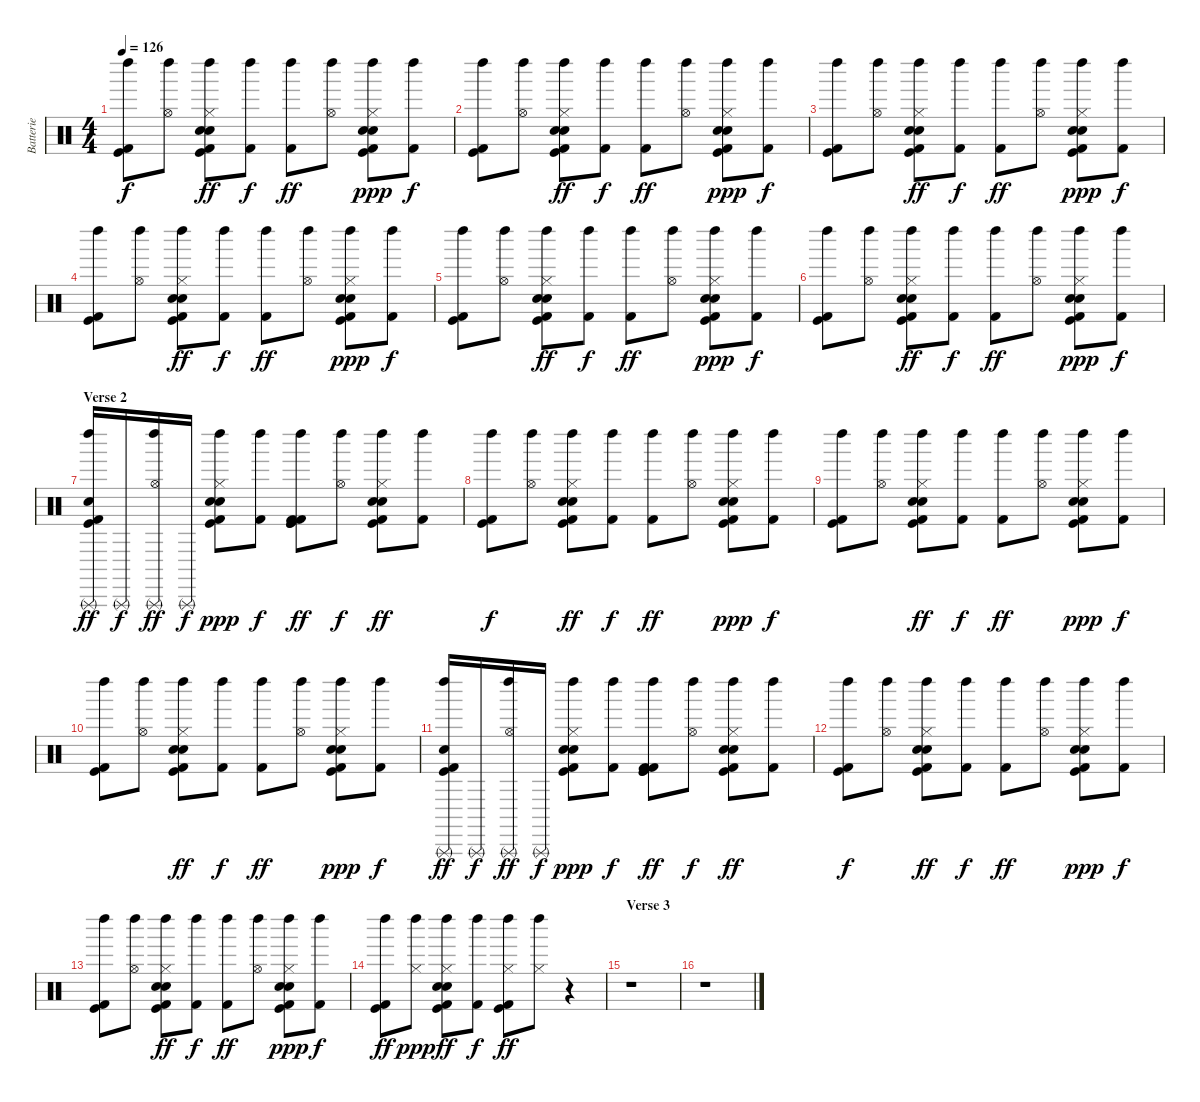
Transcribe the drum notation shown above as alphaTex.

\track ("Batterie" "Batterie") {instrument percussion}
\staff {score}
\articulation defaults
\ts (4 4)
\tempo 126
\clef neutral
\ks c
("Left Maraca (hit)" "Kick (hit)" "Kick (hit) 2").8{dy f} ("Left Maraca (hit)" "Hi-Hat (open)").8 ("Left Maraca (hit)" "Hi-Hat (closed)" "Electric Snare (hit)" "Hand Clap (hit)" "Kick (hit)" "Kick (hit) 2").8{dy ff} ("Left Maraca (hit)" "Kick (hit) 2").8{dy f} ("Left Maraca (hit)" "Kick (hit) 2").8{dy ff} ("Left Maraca (hit)" "Hi-Hat (open)").8 ("Left Maraca (hit)" "Hi-Hat (closed)" "Electric Snare (hit)" "Hand Clap (hit)" "Kick (hit)" "Kick (hit) 2").8{dy ppp} ("Left Maraca (hit)" "Kick (hit) 2").8{dy f} |
("Left Maraca (hit)" "Kick (hit)" "Kick (hit) 2").8 ("Left Maraca (hit)" "Hi-Hat (open)").8 ("Left Maraca (hit)" "Hi-Hat (closed)" "Electric Snare (hit)" "Hand Clap (hit)" "Kick (hit)" "Kick (hit) 2").8{dy ff} ("Left Maraca (hit)" "Kick (hit) 2").8{dy f} ("Left Maraca (hit)" "Kick (hit) 2").8{dy ff} ("Left Maraca (hit)" "Hi-Hat (open)").8 ("Left Maraca (hit)" "Hi-Hat (closed)" "Electric Snare (hit)" "Hand Clap (hit)" "Kick (hit)" "Kick (hit) 2").8{dy ppp} ("Left Maraca (hit)" "Kick (hit) 2").8{dy f} |
("Left Maraca (hit)" "Kick (hit)" "Kick (hit) 2").8 ("Left Maraca (hit)" "Hi-Hat (open)").8 ("Left Maraca (hit)" "Hi-Hat (closed)" "Electric Snare (hit)" "Hand Clap (hit)" "Kick (hit)" "Kick (hit) 2").8{dy ff} ("Left Maraca (hit)" "Kick (hit) 2").8{dy f} ("Left Maraca (hit)" "Kick (hit) 2").8{dy ff} ("Left Maraca (hit)" "Hi-Hat (open)").8 ("Left Maraca (hit)" "Hi-Hat (closed)" "Electric Snare (hit)" "Hand Clap (hit)" "Kick (hit)" "Kick (hit) 2").8{dy ppp} ("Left Maraca (hit)" "Kick (hit) 2").8{dy f} |
("Left Maraca (hit)" "Kick (hit)" "Kick (hit) 2").8 ("Left Maraca (hit)" "Hi-Hat (open)").8 ("Left Maraca (hit)" "Hi-Hat (closed)" "Electric Snare (hit)" "Hand Clap (hit)" "Kick (hit)" "Kick (hit) 2").8{dy ff} ("Left Maraca (hit)" "Kick (hit) 2").8{dy f} ("Left Maraca (hit)" "Kick (hit) 2").8{dy ff} ("Left Maraca (hit)" "Hi-Hat (open)").8 ("Left Maraca (hit)" "Hi-Hat (closed)" "Electric Snare (hit)" "Hand Clap (hit)" "Kick (hit)" "Kick (hit) 2").8{dy ppp} ("Left Maraca (hit)" "Kick (hit) 2").8{dy f} |
("Left Maraca (hit)" "Kick (hit)" "Kick (hit) 2").8 ("Left Maraca (hit)" "Hi-Hat (open)").8 ("Left Maraca (hit)" "Hi-Hat (closed)" "Electric Snare (hit)" "Hand Clap (hit)" "Kick (hit)" "Kick (hit) 2").8{dy ff} ("Left Maraca (hit)" "Kick (hit) 2").8{dy f} ("Left Maraca (hit)" "Kick (hit) 2").8{dy ff} ("Left Maraca (hit)" "Hi-Hat (open)").8 ("Left Maraca (hit)" "Hi-Hat (closed)" "Electric Snare (hit)" "Hand Clap (hit)" "Kick (hit)" "Kick (hit) 2").8{dy ppp} ("Left Maraca (hit)" "Kick (hit) 2").8{dy f} |
("Left Maraca (hit)" "Kick (hit)" "Kick (hit) 2").8 ("Left Maraca (hit)" "Hi-Hat (open)").8 ("Left Maraca (hit)" "Hi-Hat (closed)" "Electric Snare (hit)" "Hand Clap (hit)" "Kick (hit)" "Kick (hit) 2").8{dy ff} ("Left Maraca (hit)" "Kick (hit) 2").8{dy f} ("Left Maraca (hit)" "Kick (hit) 2").8{dy ff} ("Left Maraca (hit)" "Hi-Hat (open)").8 ("Left Maraca (hit)" "Hi-Hat (closed)" "Electric Snare (hit)" "Hand Clap (hit)" "Kick (hit)" "Kick (hit) 2").8{dy ppp} ("Left Maraca (hit)" "Kick (hit) 2").8{dy f} |
\section ("" "Verse 2")
("Left Maraca (hit)" "Triangle (rnute)" "Hand Clap (hit)" "Kick (hit)" "Kick (hit) 2").16{dy ff} "Triangle (rnute)".16{dy f} ("Left Maraca (hit)" "Triangle (rnute)" "Hi-Hat (open)").16{dy ff} "Triangle (rnute)".16{dy f} ("Left Maraca (hit)" "Hi-Hat (closed)" "Electric Snare (hit)" "Hand Clap (hit)" "Kick (hit)" "Kick (hit) 2").8{dy ppp} ("Left Maraca (hit)" "Kick (hit) 2").8{dy f} ("Kick (hit)" "Kick (hit) 2" "Left Maraca (hit)" "Kick (hit)" "Kick (hit) 2").8{dy ff} ("Left Maraca (hit)" "Hi-Hat (open)").8{dy f} ("Left Maraca (hit)" "Hi-Hat (closed)" "Electric Snare (hit)" "Hand Clap (hit)" "Kick (hit)" "Kick (hit) 2").8{dy ff} ("Left Maraca (hit)" "Kick (hit) 2").8 |
("Left Maraca (hit)" "Kick (hit)" "Kick (hit) 2").8{dy f} ("Left Maraca (hit)" "Hi-Hat (open)").8 ("Left Maraca (hit)" "Hi-Hat (closed)" "Electric Snare (hit)" "Hand Clap (hit)" "Kick (hit)" "Kick (hit) 2").8{dy ff} ("Left Maraca (hit)" "Kick (hit) 2").8{dy f} ("Left Maraca (hit)" "Kick (hit) 2").8{dy ff} ("Left Maraca (hit)" "Hi-Hat (open)").8 ("Left Maraca (hit)" "Hi-Hat (closed)" "Electric Snare (hit)" "Hand Clap (hit)" "Kick (hit)" "Kick (hit) 2").8{dy ppp} ("Left Maraca (hit)" "Kick (hit) 2").8{dy f} |
("Left Maraca (hit)" "Kick (hit)" "Kick (hit) 2").8 ("Left Maraca (hit)" "Hi-Hat (open)").8 ("Left Maraca (hit)" "Hi-Hat (closed)" "Electric Snare (hit)" "Hand Clap (hit)" "Kick (hit)" "Kick (hit) 2").8{dy ff} ("Left Maraca (hit)" "Kick (hit) 2").8{dy f} ("Left Maraca (hit)" "Kick (hit) 2").8{dy ff} ("Left Maraca (hit)" "Hi-Hat (open)").8 ("Left Maraca (hit)" "Hi-Hat (closed)" "Electric Snare (hit)" "Hand Clap (hit)" "Kick (hit)" "Kick (hit) 2").8{dy ppp} ("Left Maraca (hit)" "Kick (hit) 2").8{dy f} |
("Left Maraca (hit)" "Kick (hit)" "Kick (hit) 2").8 ("Left Maraca (hit)" "Hi-Hat (open)").8 ("Left Maraca (hit)" "Hi-Hat (closed)" "Electric Snare (hit)" "Hand Clap (hit)" "Kick (hit)" "Kick (hit) 2").8{dy ff} ("Left Maraca (hit)" "Kick (hit) 2").8{dy f} ("Left Maraca (hit)" "Kick (hit) 2").8{dy ff} ("Left Maraca (hit)" "Hi-Hat (open)").8 ("Left Maraca (hit)" "Hi-Hat (closed)" "Electric Snare (hit)" "Hand Clap (hit)" "Kick (hit)" "Kick (hit) 2").8{dy ppp} ("Left Maraca (hit)" "Kick (hit) 2").8{dy f} |
("Left Maraca (hit)" "Triangle (rnute)" "Hand Clap (hit)" "Kick (hit)" "Kick (hit) 2").16{dy ff} "Triangle (rnute)".16{dy f} ("Left Maraca (hit)" "Triangle (rnute)" "Hi-Hat (open)").16{dy ff} "Triangle (rnute)".16{dy f} ("Left Maraca (hit)" "Hi-Hat (closed)" "Electric Snare (hit)" "Hand Clap (hit)" "Kick (hit)" "Kick (hit) 2").8{dy ppp} ("Left Maraca (hit)" "Kick (hit) 2").8{dy f} ("Kick (hit)" "Kick (hit) 2" "Left Maraca (hit)" "Kick (hit)" "Kick (hit) 2").8{dy ff} ("Left Maraca (hit)" "Hi-Hat (open)").8{dy f} ("Left Maraca (hit)" "Hi-Hat (closed)" "Electric Snare (hit)" "Hand Clap (hit)" "Kick (hit)" "Kick (hit) 2").8{dy ff} ("Left Maraca (hit)" "Kick (hit) 2").8 |
("Left Maraca (hit)" "Kick (hit)" "Kick (hit) 2").8{dy f} ("Left Maraca (hit)" "Hi-Hat (open)").8 ("Left Maraca (hit)" "Hi-Hat (closed)" "Electric Snare (hit)" "Hand Clap (hit)" "Kick (hit)" "Kick (hit) 2").8{dy ff} ("Left Maraca (hit)" "Kick (hit) 2").8{dy f} ("Left Maraca (hit)" "Kick (hit) 2").8{dy ff} ("Left Maraca (hit)" "Hi-Hat (open)").8 ("Left Maraca (hit)" "Hi-Hat (closed)" "Electric Snare (hit)" "Hand Clap (hit)" "Kick (hit)" "Kick (hit) 2").8{dy ppp} ("Left Maraca (hit)" "Kick (hit) 2").8{dy f} |
("Left Maraca (hit)" "Kick (hit)" "Kick (hit) 2").8 ("Left Maraca (hit)" "Hi-Hat (open)").8 ("Left Maraca (hit)" "Hi-Hat (closed)" "Electric Snare (hit)" "Hand Clap (hit)" "Kick (hit)" "Kick (hit) 2").8{dy ff} ("Left Maraca (hit)" "Kick (hit) 2").8{dy f} ("Left Maraca (hit)" "Kick (hit) 2").8{dy ff} ("Left Maraca (hit)" "Hi-Hat (open)").8 ("Left Maraca (hit)" "Hi-Hat (closed)" "Electric Snare (hit)" "Hand Clap (hit)" "Kick (hit)" "Kick (hit) 2").8{dy ppp} ("Left Maraca (hit)" "Kick (hit) 2").8{dy f} |
("Left Maraca (hit)" "Kick (hit)" "Kick (hit) 2").8{dy ff} ("Left Maraca (hit)" "Hi-Hat (closed)").8{dy ppp} ("Left Maraca (hit)" "Hi-Hat (closed)" "Electric Snare (hit)" "Hand Clap (hit)" "Kick (hit)" "Kick (hit) 2").8{dy ff} ("Left Maraca (hit)" "Kick (hit) 2").8{dy f} ("Left Maraca (hit)" "Hi-Hat (closed)" "Kick (hit)" "Kick (hit) 2").8{dy ff} ("Left Maraca (hit)" "Hi-Hat (closed)").8 r.4 |
\section ("" "Verse 3")
r.1 |
r.1
